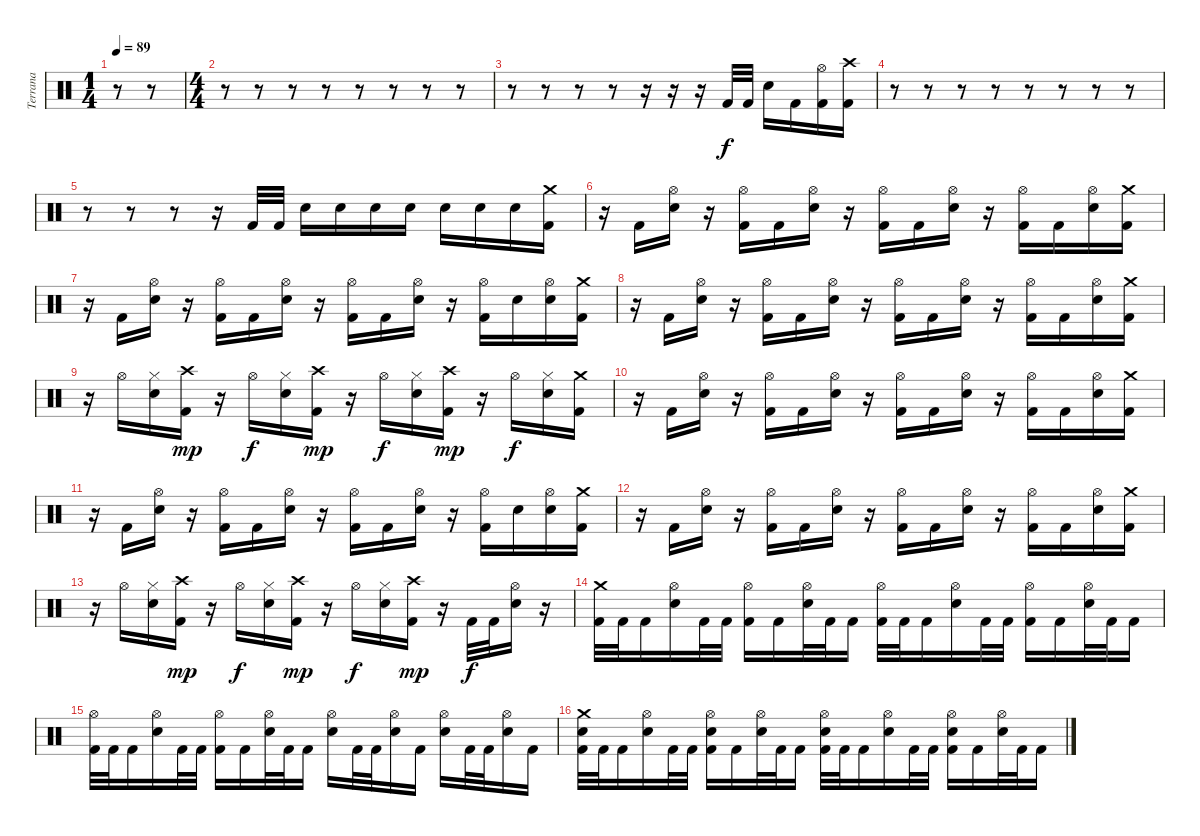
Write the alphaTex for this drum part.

\track ("Terrana" "Terrana") {instrument percussion}
\staff {score}
\articulation defaults
\ts (1 4)
\tempo 89
\clef neutral
\ks c
r.8{dy f} r.8 |
\ts (4 4)
r.8 r.8 r.8 r.8 r.8 r.8 r.8 r.8 |
r.8 r.8 r.8 r.8 r.16 r.16 r.16 "Kick (hit) 2".32 "Kick (hit) 2".32 "Electric Snare (hit)".16 "Kick (hit) 2".16 ("Hi-Hat (open)" "Kick (hit) 2").16 ("Crash high (hit)" "Kick (hit) 2").16 |
r.8 r.8 r.8 r.8 r.8 r.8 r.8 r.8 |
r.8 r.8 r.8 r.16 "Kick (hit) 2".32 "Kick (hit) 2".32 "Electric Snare (hit)".16 "Electric Snare (hit)".16 "Electric Snare (hit)".16 "Electric Snare (hit)".16 "Electric Snare (hit)".16 "Electric Snare (hit)".16 "Electric Snare (hit)".16 ("Crash medium (hit)" "Kick (hit) 2").16 |
r.16 "Kick (hit) 2".16 ("Hi-Hat (open)" "Electric Snare (hit)").16 r.16 ("Hi-Hat (open)" "Kick (hit) 2").16 "Kick (hit) 2".16 ("Hi-Hat (open)" "Electric Snare (hit)").16 r.16 ("Hi-Hat (open)" "Kick (hit) 2").16 "Kick (hit) 2".16 ("Hi-Hat (open)" "Electric Snare (hit)").16 r.16 ("Hi-Hat (open)" "Kick (hit) 2").16 "Kick (hit) 2".16 ("Hi-Hat (open)" "Electric Snare (hit)").16 ("Crash medium (hit)" "Kick (hit) 2").16 |
r.16 "Kick (hit) 2".16 ("Hi-Hat (open)" "Electric Snare (hit)").16 r.16 ("Hi-Hat (open)" "Kick (hit) 2").16 "Kick (hit) 2".16 ("Hi-Hat (open)" "Electric Snare (hit)").16 r.16 ("Hi-Hat (open)" "Kick (hit) 2").16 "Kick (hit) 2".16 ("Hi-Hat (open)" "Electric Snare (hit)").16 r.16 ("Hi-Hat (open)" "Kick (hit) 2").16 "Electric Snare (hit)".16 ("Hi-Hat (open)" "Electric Snare (hit)").16 ("Crash medium (hit)" "Kick (hit) 2").16 |
r.16 "Kick (hit) 2".16 ("Hi-Hat (open)" "Electric Snare (hit)").16 r.16 ("Hi-Hat (open)" "Kick (hit) 2").16 "Kick (hit) 2".16 ("Hi-Hat (open)" "Electric Snare (hit)").16 r.16 ("Hi-Hat (open)" "Kick (hit) 2").16 "Kick (hit) 2".16 ("Hi-Hat (open)" "Electric Snare (hit)").16 r.16 ("Hi-Hat (open)" "Kick (hit) 2").16 "Kick (hit) 2".16 ("Hi-Hat (open)" "Electric Snare (hit)").16 ("Crash medium (hit)" "Kick (hit) 2").16 |
r.16 "Hi-Hat (open)".16 ("Hi-Hat (closed)" "Electric Snare (hit)").16 ("Crash high (hit)" "Kick (hit) 2").16{dy mp} r.16 "Hi-Hat (open)".16{dy f} ("Hi-Hat (closed)" "Electric Snare (hit)").16 ("Crash high (hit)" "Kick (hit) 2").16{dy mp} r.16 "Hi-Hat (open)".16{dy f} ("Hi-Hat (closed)" "Electric Snare (hit)").16 ("Crash high (hit)" "Kick (hit) 2").16{dy mp} r.16 "Hi-Hat (open)".16{dy f} ("Hi-Hat (closed)" "Electric Snare (hit)").16 ("Crash medium (hit)" "Kick (hit) 2").16 |
r.16 "Kick (hit) 2".16 ("Hi-Hat (open)" "Electric Snare (hit)").16 r.16 ("Hi-Hat (open)" "Kick (hit) 2").16 "Kick (hit) 2".16 ("Hi-Hat (open)" "Electric Snare (hit)").16 r.16 ("Hi-Hat (open)" "Kick (hit) 2").16 "Kick (hit) 2".16 ("Hi-Hat (open)" "Electric Snare (hit)").16 r.16 ("Hi-Hat (open)" "Kick (hit) 2").16 "Kick (hit) 2".16 ("Hi-Hat (open)" "Electric Snare (hit)").16 ("Crash medium (hit)" "Kick (hit) 2").16 |
r.16 "Kick (hit) 2".16 ("Hi-Hat (open)" "Electric Snare (hit)").16 r.16 ("Hi-Hat (open)" "Kick (hit) 2").16 "Kick (hit) 2".16 ("Hi-Hat (open)" "Electric Snare (hit)").16 r.16 ("Hi-Hat (open)" "Kick (hit) 2").16 "Kick (hit) 2".16 ("Hi-Hat (open)" "Electric Snare (hit)").16 r.16 ("Hi-Hat (open)" "Kick (hit) 2").16 "Electric Snare (hit)".16 ("Hi-Hat (open)" "Electric Snare (hit)").16 ("Crash medium (hit)" "Kick (hit) 2").16 |
r.16 "Kick (hit) 2".16 ("Hi-Hat (open)" "Electric Snare (hit)").16 r.16 ("Hi-Hat (open)" "Kick (hit) 2").16 "Kick (hit) 2".16 ("Hi-Hat (open)" "Electric Snare (hit)").16 r.16 ("Hi-Hat (open)" "Kick (hit) 2").16 "Kick (hit) 2".16 ("Hi-Hat (open)" "Electric Snare (hit)").16 r.16 ("Hi-Hat (open)" "Kick (hit) 2").16 "Kick (hit) 2".16 ("Hi-Hat (open)" "Electric Snare (hit)").16 ("Crash medium (hit)" "Kick (hit) 2").16 |
r.16 "Hi-Hat (open)".16 ("Hi-Hat (closed)" "Electric Snare (hit)").16 ("Crash high (hit)" "Kick (hit) 2").16{dy mp} r.16 "Hi-Hat (open)".16{dy f} ("Hi-Hat (closed)" "Electric Snare (hit)").16 ("Crash high (hit)" "Kick (hit) 2").16{dy mp} r.16 "Hi-Hat (open)".16{dy f} ("Hi-Hat (closed)" "Electric Snare (hit)").16 ("Crash high (hit)" "Kick (hit) 2").16{dy mp} r.16 "Kick (hit) 2".32{dy f} "Kick (hit) 2".32 ("Hi-Hat (open)" "Electric Snare (hit)").16 r.16 |
("Crash medium (hit)" "Kick (hit) 2").32 "Kick (hit) 2".32 "Kick (hit) 2".16 ("Hi-Hat (open)" "Electric Snare (hit)").16 "Kick (hit) 2".32 "Kick (hit) 2".32 ("Hi-Hat (open)" "Kick (hit) 2").16 "Kick (hit) 2".16 ("Hi-Hat (open)" "Electric Snare (hit)").32 "Kick (hit) 2".32 "Kick (hit) 2".16 ("Hi-Hat (open)" "Kick (hit) 2").32 "Kick (hit) 2".32 "Kick (hit) 2".16 ("Hi-Hat (open)" "Electric Snare (hit)").16 "Kick (hit) 2".32 "Kick (hit) 2".32 ("Hi-Hat (open)" "Kick (hit) 2").16 "Kick (hit) 2".16 ("Hi-Hat (open)" "Electric Snare (hit)").32 "Kick (hit) 2".32 "Kick (hit) 2".16 |
("Hi-Hat (open)" "Kick (hit) 2").32 "Kick (hit) 2".32 "Kick (hit) 2".16 ("Hi-Hat (open)" "Electric Snare (hit)").16 "Kick (hit) 2".32 "Kick (hit) 2".32 ("Hi-Hat (open)" "Kick (hit) 2").16 "Kick (hit) 2".16 ("Hi-Hat (open)" "Electric Snare (hit)").32 "Kick (hit) 2".32 "Kick (hit) 2".16 ("Hi-Hat (open)" "Electric Snare (hit)").16 "Kick (hit) 2".32 "Kick (hit) 2".32 ("Hi-Hat (open)" "Electric Snare (hit)").16 "Kick (hit) 2".16 ("Hi-Hat (open)" "Electric Snare (hit)").16 "Kick (hit) 2".32 "Kick (hit) 2".32 ("Hi-Hat (open)" "Electric Snare (hit)").16 "Kick (hit) 2".16 |
("Crash medium (hit)" "Electric Snare (hit)" "Kick (hit) 2").32 "Kick (hit) 2".32 "Kick (hit) 2".16 ("Hi-Hat (open)" "Electric Snare (hit)").16 "Kick (hit) 2".32 "Kick (hit) 2".32 ("Hi-Hat (open)" "Electric Snare (hit)" "Kick (hit) 2").16 "Kick (hit) 2".16 ("Hi-Hat (open)" "Electric Snare (hit)").32 "Kick (hit) 2".32 "Kick (hit) 2".16 ("Hi-Hat (open)" "Electric Snare (hit)" "Kick (hit) 2").32 "Kick (hit) 2".32 "Kick (hit) 2".16 ("Hi-Hat (open)" "Electric Snare (hit)").16 "Kick (hit) 2".32 "Kick (hit) 2".32 ("Hi-Hat (open)" "Electric Snare (hit)" "Kick (hit) 2").16 "Kick (hit) 2".16 ("Hi-Hat (open)" "Electric Snare (hit)").32 "Kick (hit) 2".32 "Kick (hit) 2".16
